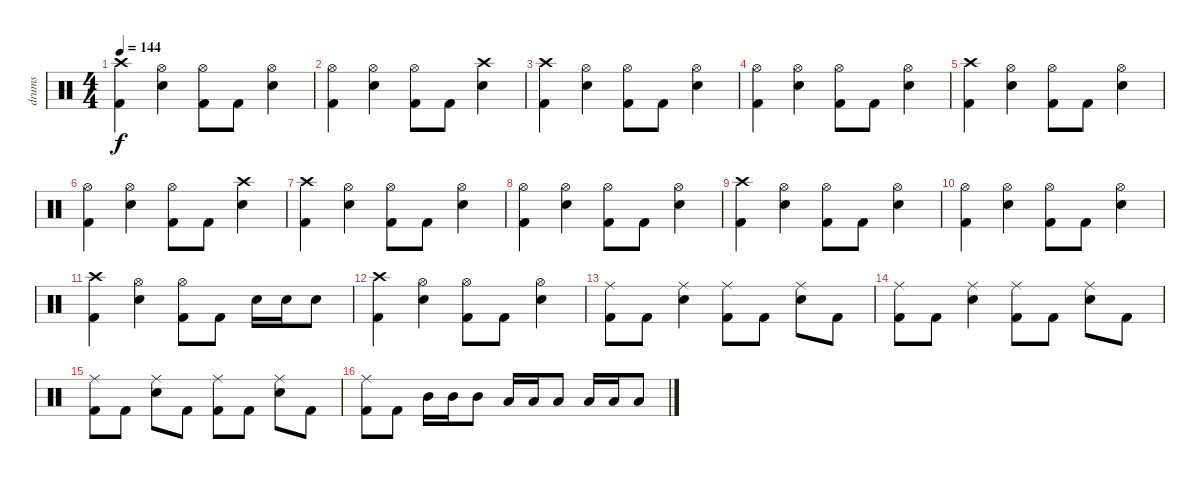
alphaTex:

\track ("drums" "drums") {instrument percussion}
\staff {score}
\articulation defaults
\ts (4 4)
\tempo 144
\clef neutral
\ks c
("Crash high (hit)" "Kick (hit) 2").4{dy f} ("Hi-Hat (open)" "Electric Snare (hit)").4 ("Hi-Hat (open)" "Kick (hit) 2").8 "Kick (hit) 2".8 ("Hi-Hat (open)" "Electric Snare (hit)").4 |
("Hi-Hat (open)" "Kick (hit) 2").4 ("Hi-Hat (open)" "Electric Snare (hit)").4 ("Hi-Hat (open)" "Kick (hit) 2").8 "Kick (hit) 2".8 ("Crash high (hit)" "Electric Snare (hit)").4 |
("Crash high (hit)" "Kick (hit) 2").4 ("Hi-Hat (open)" "Electric Snare (hit)").4 ("Hi-Hat (open)" "Kick (hit) 2").8 "Kick (hit) 2".8 ("Hi-Hat (open)" "Electric Snare (hit)").4 |
("Hi-Hat (open)" "Kick (hit) 2").4 ("Hi-Hat (open)" "Electric Snare (hit)").4 ("Hi-Hat (open)" "Kick (hit) 2").8 "Kick (hit) 2".8 ("Hi-Hat (open)" "Electric Snare (hit)").4 |
("Crash high (hit)" "Kick (hit) 2").4 ("Hi-Hat (open)" "Electric Snare (hit)").4 ("Hi-Hat (open)" "Kick (hit) 2").8 "Kick (hit) 2".8 ("Hi-Hat (open)" "Electric Snare (hit)").4 |
("Hi-Hat (open)" "Kick (hit) 2").4 ("Hi-Hat (open)" "Electric Snare (hit)").4 ("Hi-Hat (open)" "Kick (hit) 2").8 "Kick (hit) 2".8 ("Crash high (hit)" "Electric Snare (hit)").4 |
("Crash high (hit)" "Kick (hit) 2").4 ("Hi-Hat (open)" "Electric Snare (hit)").4 ("Hi-Hat (open)" "Kick (hit) 2").8 "Kick (hit) 2".8 ("Hi-Hat (open)" "Electric Snare (hit)").4 |
("Hi-Hat (open)" "Kick (hit) 2").4 ("Hi-Hat (open)" "Electric Snare (hit)").4 ("Hi-Hat (open)" "Kick (hit) 2").8 "Kick (hit) 2".8 ("Hi-Hat (open)" "Electric Snare (hit)").4 |
("Crash high (hit)" "Kick (hit) 2").4 ("Hi-Hat (open)" "Electric Snare (hit)").4 ("Hi-Hat (open)" "Kick (hit) 2").8 "Kick (hit) 2".8 ("Hi-Hat (open)" "Electric Snare (hit)").4 |
("Hi-Hat (open)" "Kick (hit) 2").4 ("Hi-Hat (open)" "Electric Snare (hit)").4 ("Hi-Hat (open)" "Kick (hit) 2").8 "Kick (hit) 2".8 ("Hi-Hat (open)" "Electric Snare (hit)").4 |
("Crash high (hit)" "Kick (hit) 2").4 ("Hi-Hat (open)" "Electric Snare (hit)").4 ("Hi-Hat (open)" "Kick (hit) 2").8 "Kick (hit) 2".8 "Electric Snare (hit)".16 "Electric Snare (hit)".16 "Electric Snare (hit)".8 |
("Crash high (hit)" "Kick (hit) 2").4 ("Hi-Hat (open)" "Electric Snare (hit)").4 ("Hi-Hat (open)" "Kick (hit) 2").8 "Kick (hit) 2".8 ("Hi-Hat (open)" "Electric Snare (hit)").4 |
("Ride (middle)" "Kick (hit) 2").8 "Kick (hit) 2".8 ("Ride (middle)" "Electric Snare (hit)").4 ("Ride (middle)" "Kick (hit) 2").8 "Kick (hit) 2".8 ("Ride (middle)" "Electric Snare (hit)").8 "Kick (hit) 2".8 |
("Ride (middle)" "Kick (hit) 2").8 "Kick (hit) 2".8 ("Ride (middle)" "Electric Snare (hit)").4 ("Ride (middle)" "Kick (hit) 2").8 "Kick (hit) 2".8 ("Ride (middle)" "Electric Snare (hit)").8 "Kick (hit) 2".8 |
("Ride (middle)" "Kick (hit) 2").8 "Kick (hit) 2".8 ("Ride (middle)" "Electric Snare (hit)").8 "Kick (hit) 2".8 ("Ride (middle)" "Kick (hit) 2").8 "Kick (hit) 2".8 ("Ride (middle)" "Electric Snare (hit)").8 "Kick (hit) 2".8 |
("Ride (middle)" "Kick (hit) 2").8 "Kick (hit) 2".8 "Mid Tom (hit)".16 "Mid Tom (hit)".16 "Mid Tom (hit)".8 "Low Tom (hit)".16 "Low Tom (hit)".16 "Low Tom (hit)".8 "Low Floor Tom (hit)".16 "Low Floor Tom (hit)".16 "Low Floor Tom (hit)".8
